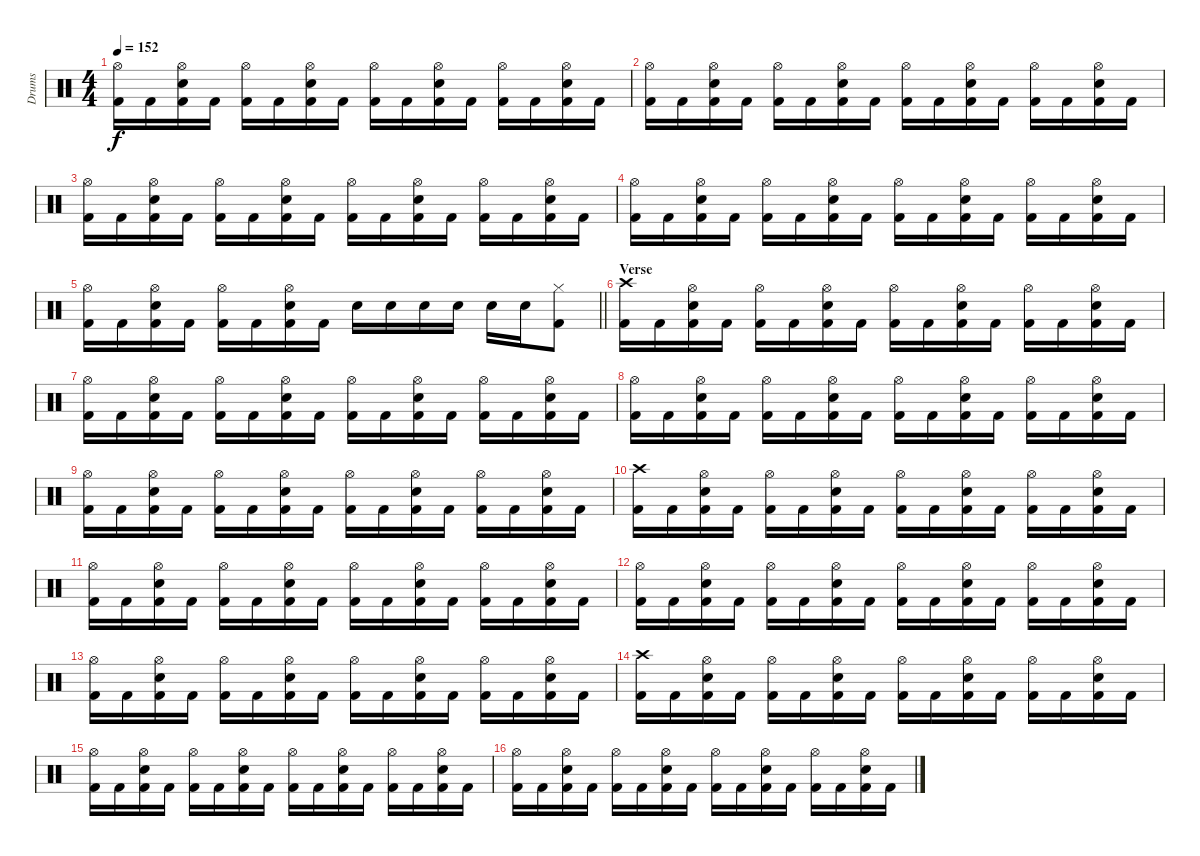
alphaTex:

\track ("Drums" "Drums") {instrument percussion}
\staff {score}
\articulation defaults
\ts (4 4)
\tempo 152
\clef neutral
\ks c
("Hi-Hat (open)" "Kick (hit) 2").16{dy f} "Kick (hit) 2".16 ("Hi-Hat (open)" "Snare (hit) 2" "Kick (hit) 2").16 "Kick (hit) 2".16 ("Hi-Hat (open)" "Kick (hit) 2").16 "Kick (hit) 2".16 ("Hi-Hat (open)" "Snare (hit) 2" "Kick (hit) 2").16 "Kick (hit) 2".16 ("Hi-Hat (open)" "Kick (hit) 2").16 "Kick (hit) 2".16 ("Hi-Hat (open)" "Snare (hit) 2" "Kick (hit) 2").16 "Kick (hit) 2".16 ("Hi-Hat (open)" "Kick (hit) 2").16 "Kick (hit) 2".16 ("Hi-Hat (open)" "Snare (hit) 2" "Kick (hit) 2").16 "Kick (hit) 2".16 |
("Hi-Hat (open)" "Kick (hit) 2").16 "Kick (hit) 2".16 ("Hi-Hat (open)" "Snare (hit) 2" "Kick (hit) 2").16 "Kick (hit) 2".16 ("Hi-Hat (open)" "Kick (hit) 2").16 "Kick (hit) 2".16 ("Hi-Hat (open)" "Snare (hit) 2" "Kick (hit) 2").16 "Kick (hit) 2".16 ("Hi-Hat (open)" "Kick (hit) 2").16 "Kick (hit) 2".16 ("Hi-Hat (open)" "Snare (hit) 2" "Kick (hit) 2").16 "Kick (hit) 2".16 ("Hi-Hat (open)" "Kick (hit) 2").16 "Kick (hit) 2".16 ("Hi-Hat (open)" "Snare (hit) 2" "Kick (hit) 2").16 "Kick (hit) 2".16 |
("Hi-Hat (open)" "Kick (hit) 2").16 "Kick (hit) 2".16 ("Hi-Hat (open)" "Snare (hit) 2" "Kick (hit) 2").16 "Kick (hit) 2".16 ("Hi-Hat (open)" "Kick (hit) 2").16 "Kick (hit) 2".16 ("Hi-Hat (open)" "Snare (hit) 2" "Kick (hit) 2").16 "Kick (hit) 2".16 ("Hi-Hat (open)" "Kick (hit) 2").16 "Kick (hit) 2".16 ("Hi-Hat (open)" "Snare (hit) 2" "Kick (hit) 2").16 "Kick (hit) 2".16 ("Hi-Hat (open)" "Kick (hit) 2").16 "Kick (hit) 2".16 ("Hi-Hat (open)" "Snare (hit) 2" "Kick (hit) 2").16 "Kick (hit) 2".16 |
("Hi-Hat (open)" "Kick (hit) 2").16 "Kick (hit) 2".16 ("Hi-Hat (open)" "Snare (hit) 2" "Kick (hit) 2").16 "Kick (hit) 2".16 ("Hi-Hat (open)" "Kick (hit) 2").16 "Kick (hit) 2".16 ("Hi-Hat (open)" "Snare (hit) 2" "Kick (hit) 2").16 "Kick (hit) 2".16 ("Hi-Hat (open)" "Kick (hit) 2").16 "Kick (hit) 2".16 ("Hi-Hat (open)" "Snare (hit) 2" "Kick (hit) 2").16 "Kick (hit) 2".16 ("Hi-Hat (open)" "Kick (hit) 2").16 "Kick (hit) 2".16 ("Hi-Hat (open)" "Snare (hit) 2" "Kick (hit) 2").16 "Kick (hit) 2".16 |
\barLineRight lightlight
("Hi-Hat (open)" "Kick (hit) 2").16 "Kick (hit) 2".16 ("Hi-Hat (open)" "Snare (hit) 2" "Kick (hit) 2").16 "Kick (hit) 2".16 ("Hi-Hat (open)" "Kick (hit) 2").16 "Kick (hit) 2".16 ("Hi-Hat (open)" "Snare (hit) 2" "Kick (hit) 2").16 "Kick (hit) 2".16 "Snare (hit) 2".16 "Snare (hit) 2".16 "Snare (hit) 2".16 "Snare (hit) 2".16 "Snare (hit) 2".16 "Snare (hit) 2".16 ("Hi-Hat (closed)" "Kick (hit) 2").8 |
\section ("" "Verse")
("Crash high (hit)" "Kick (hit) 2").16 "Kick (hit) 2".16 ("Hi-Hat (open)" "Snare (hit) 2" "Kick (hit) 2").16 "Kick (hit) 2".16 ("Hi-Hat (open)" "Kick (hit) 2").16 "Kick (hit) 2".16 ("Hi-Hat (open)" "Snare (hit) 2" "Kick (hit) 2").16 "Kick (hit) 2".16 ("Hi-Hat (open)" "Kick (hit) 2").16 "Kick (hit) 2".16 ("Hi-Hat (open)" "Snare (hit) 2" "Kick (hit) 2").16 "Kick (hit) 2".16 ("Hi-Hat (open)" "Kick (hit) 2").16 "Kick (hit) 2".16 ("Hi-Hat (open)" "Snare (hit) 2" "Kick (hit) 2").16 "Kick (hit) 2".16 |
("Hi-Hat (open)" "Kick (hit) 2").16 "Kick (hit) 2".16 ("Hi-Hat (open)" "Snare (hit) 2" "Kick (hit) 2").16 "Kick (hit) 2".16 ("Hi-Hat (open)" "Kick (hit) 2").16 "Kick (hit) 2".16 ("Hi-Hat (open)" "Snare (hit) 2" "Kick (hit) 2").16 "Kick (hit) 2".16 ("Hi-Hat (open)" "Kick (hit) 2").16 "Kick (hit) 2".16 ("Hi-Hat (open)" "Snare (hit) 2" "Kick (hit) 2").16 "Kick (hit) 2".16 ("Hi-Hat (open)" "Kick (hit) 2").16 "Kick (hit) 2".16 ("Hi-Hat (open)" "Snare (hit) 2" "Kick (hit) 2").16 "Kick (hit) 2".16 |
("Hi-Hat (open)" "Kick (hit) 2").16 "Kick (hit) 2".16 ("Hi-Hat (open)" "Snare (hit) 2" "Kick (hit) 2").16 "Kick (hit) 2".16 ("Hi-Hat (open)" "Kick (hit) 2").16 "Kick (hit) 2".16 ("Hi-Hat (open)" "Snare (hit) 2" "Kick (hit) 2").16 "Kick (hit) 2".16 ("Hi-Hat (open)" "Kick (hit) 2").16 "Kick (hit) 2".16 ("Hi-Hat (open)" "Snare (hit) 2" "Kick (hit) 2").16 "Kick (hit) 2".16 ("Hi-Hat (open)" "Kick (hit) 2").16 "Kick (hit) 2".16 ("Hi-Hat (open)" "Snare (hit) 2" "Kick (hit) 2").16 "Kick (hit) 2".16 |
("Hi-Hat (open)" "Kick (hit) 2").16 "Kick (hit) 2".16 ("Hi-Hat (open)" "Snare (hit) 2" "Kick (hit) 2").16 "Kick (hit) 2".16 ("Hi-Hat (open)" "Kick (hit) 2").16 "Kick (hit) 2".16 ("Hi-Hat (open)" "Snare (hit) 2" "Kick (hit) 2").16 "Kick (hit) 2".16 ("Hi-Hat (open)" "Kick (hit) 2").16 "Kick (hit) 2".16 ("Hi-Hat (open)" "Snare (hit) 2" "Kick (hit) 2").16 "Kick (hit) 2".16 ("Hi-Hat (open)" "Kick (hit) 2").16 "Kick (hit) 2".16 ("Hi-Hat (open)" "Snare (hit) 2" "Kick (hit) 2").16 "Kick (hit) 2".16 |
("Crash high (hit)" "Kick (hit) 2").16 "Kick (hit) 2".16 ("Hi-Hat (open)" "Snare (hit) 2" "Kick (hit) 2").16 "Kick (hit) 2".16 ("Hi-Hat (open)" "Kick (hit) 2").16 "Kick (hit) 2".16 ("Hi-Hat (open)" "Snare (hit) 2" "Kick (hit) 2").16 "Kick (hit) 2".16 ("Hi-Hat (open)" "Kick (hit) 2").16 "Kick (hit) 2".16 ("Hi-Hat (open)" "Snare (hit) 2" "Kick (hit) 2").16 "Kick (hit) 2".16 ("Hi-Hat (open)" "Kick (hit) 2").16 "Kick (hit) 2".16 ("Hi-Hat (open)" "Snare (hit) 2" "Kick (hit) 2").16 "Kick (hit) 2".16 |
("Hi-Hat (open)" "Kick (hit) 2").16 "Kick (hit) 2".16 ("Hi-Hat (open)" "Snare (hit) 2" "Kick (hit) 2").16 "Kick (hit) 2".16 ("Hi-Hat (open)" "Kick (hit) 2").16 "Kick (hit) 2".16 ("Hi-Hat (open)" "Snare (hit) 2" "Kick (hit) 2").16 "Kick (hit) 2".16 ("Hi-Hat (open)" "Kick (hit) 2").16 "Kick (hit) 2".16 ("Hi-Hat (open)" "Snare (hit) 2" "Kick (hit) 2").16 "Kick (hit) 2".16 ("Hi-Hat (open)" "Kick (hit) 2").16 "Kick (hit) 2".16 ("Hi-Hat (open)" "Snare (hit) 2" "Kick (hit) 2").16 "Kick (hit) 2".16 |
("Hi-Hat (open)" "Kick (hit) 2").16 "Kick (hit) 2".16 ("Hi-Hat (open)" "Snare (hit) 2" "Kick (hit) 2").16 "Kick (hit) 2".16 ("Hi-Hat (open)" "Kick (hit) 2").16 "Kick (hit) 2".16 ("Hi-Hat (open)" "Snare (hit) 2" "Kick (hit) 2").16 "Kick (hit) 2".16 ("Hi-Hat (open)" "Kick (hit) 2").16 "Kick (hit) 2".16 ("Hi-Hat (open)" "Snare (hit) 2" "Kick (hit) 2").16 "Kick (hit) 2".16 ("Hi-Hat (open)" "Kick (hit) 2").16 "Kick (hit) 2".16 ("Hi-Hat (open)" "Snare (hit) 2" "Kick (hit) 2").16 "Kick (hit) 2".16 |
("Hi-Hat (open)" "Kick (hit) 2").16 "Kick (hit) 2".16 ("Hi-Hat (open)" "Snare (hit) 2" "Kick (hit) 2").16 "Kick (hit) 2".16 ("Hi-Hat (open)" "Kick (hit) 2").16 "Kick (hit) 2".16 ("Hi-Hat (open)" "Snare (hit) 2" "Kick (hit) 2").16 "Kick (hit) 2".16 ("Hi-Hat (open)" "Kick (hit) 2").16 "Kick (hit) 2".16 ("Hi-Hat (open)" "Snare (hit) 2" "Kick (hit) 2").16 "Kick (hit) 2".16 ("Hi-Hat (open)" "Kick (hit) 2").16 "Kick (hit) 2".16 ("Hi-Hat (open)" "Snare (hit) 2" "Kick (hit) 2").16 "Kick (hit) 2".16 |
("Crash high (hit)" "Kick (hit) 2").16 "Kick (hit) 2".16 ("Hi-Hat (open)" "Snare (hit) 2" "Kick (hit) 2").16 "Kick (hit) 2".16 ("Hi-Hat (open)" "Kick (hit) 2").16 "Kick (hit) 2".16 ("Hi-Hat (open)" "Snare (hit) 2" "Kick (hit) 2").16 "Kick (hit) 2".16 ("Hi-Hat (open)" "Kick (hit) 2").16 "Kick (hit) 2".16 ("Hi-Hat (open)" "Snare (hit) 2" "Kick (hit) 2").16 "Kick (hit) 2".16 ("Hi-Hat (open)" "Kick (hit) 2").16 "Kick (hit) 2".16 ("Hi-Hat (open)" "Snare (hit) 2" "Kick (hit) 2").16 "Kick (hit) 2".16 |
("Hi-Hat (open)" "Kick (hit) 2").16 "Kick (hit) 2".16 ("Hi-Hat (open)" "Snare (hit) 2" "Kick (hit) 2").16 "Kick (hit) 2".16 ("Hi-Hat (open)" "Kick (hit) 2").16 "Kick (hit) 2".16 ("Hi-Hat (open)" "Snare (hit) 2" "Kick (hit) 2").16 "Kick (hit) 2".16 ("Hi-Hat (open)" "Kick (hit) 2").16 "Kick (hit) 2".16 ("Hi-Hat (open)" "Snare (hit) 2" "Kick (hit) 2").16 "Kick (hit) 2".16 ("Hi-Hat (open)" "Kick (hit) 2").16 "Kick (hit) 2".16 ("Hi-Hat (open)" "Snare (hit) 2" "Kick (hit) 2").16 "Kick (hit) 2".16 |
("Hi-Hat (open)" "Kick (hit) 2").16 "Kick (hit) 2".16 ("Hi-Hat (open)" "Snare (hit) 2" "Kick (hit) 2").16 "Kick (hit) 2".16 ("Hi-Hat (open)" "Kick (hit) 2").16 "Kick (hit) 2".16 ("Hi-Hat (open)" "Snare (hit) 2" "Kick (hit) 2").16 "Kick (hit) 2".16 ("Hi-Hat (open)" "Kick (hit) 2").16 "Kick (hit) 2".16 ("Hi-Hat (open)" "Snare (hit) 2" "Kick (hit) 2").16 "Kick (hit) 2".16 ("Hi-Hat (open)" "Kick (hit) 2").16 "Kick (hit) 2".16 ("Hi-Hat (open)" "Snare (hit) 2" "Kick (hit) 2").16 "Kick (hit) 2".16
